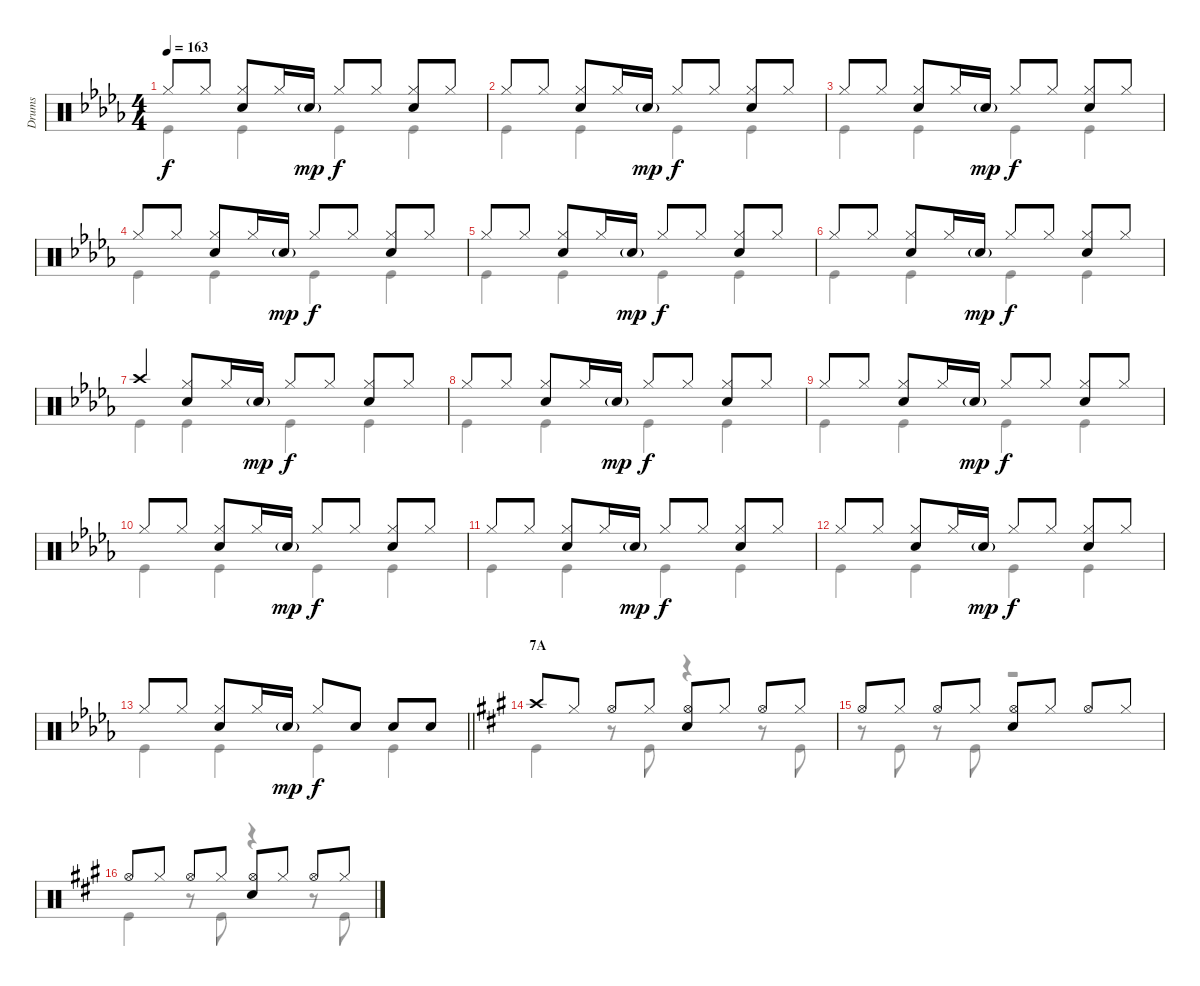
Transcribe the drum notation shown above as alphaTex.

\track ("Drums" "Drums") {instrument percussion}
\staff {score}
\articulation defaults
\voice
\ts (4 4)
\tempo 163
\clef neutral
\ks db "Hi-Hat (closed)".8{dy f} "Hi-Hat (closed)".8
("Hi-Hat (closed)" "Snare (hit) 2").8 "Hi-Hat (closed)".16 "Snare (hit) 2"{g}.16{dy mp} "Hi-Hat (closed)".8{dy f} "Hi-Hat (closed)".8 ("Hi-Hat (closed)" "Snare (hit) 2").8 "Hi-Hat (closed)".8 |
"Hi-Hat (closed)".8 "Hi-Hat (closed)".8 ("Hi-Hat (closed)" "Snare (hit) 2").8 "Hi-Hat (closed)".16 "Snare (hit) 2"{g}.16{dy mp} "Hi-Hat (closed)".8{dy f} "Hi-Hat (closed)".8 ("Hi-Hat (closed)" "Snare (hit) 2").8 "Hi-Hat (closed)".8 |
"Hi-Hat (closed)".8 "Hi-Hat (closed)".8 ("Hi-Hat (closed)" "Snare (hit) 2").8 "Hi-Hat (closed)".16 "Snare (hit) 2"{g}.16{dy mp} "Hi-Hat (closed)".8{dy f} "Hi-Hat (closed)".8 ("Hi-Hat (closed)" "Snare (hit) 2").8 "Hi-Hat (closed)".8 |
"Hi-Hat (closed)".8 "Hi-Hat (closed)".8 ("Hi-Hat (closed)" "Snare (hit) 2").8 "Hi-Hat (closed)".16 "Snare (hit) 2"{g}.16{dy mp} "Hi-Hat (closed)".8{dy f} "Hi-Hat (closed)".8 ("Hi-Hat (closed)" "Snare (hit) 2").8 "Hi-Hat (closed)".8 |
"Hi-Hat (closed)".8 "Hi-Hat (closed)".8 ("Hi-Hat (closed)" "Snare (hit) 2").8 "Hi-Hat (closed)".16 "Snare (hit) 2"{g}.16{dy mp} "Hi-Hat (closed)".8{dy f} "Hi-Hat (closed)".8 ("Hi-Hat (closed)" "Snare (hit) 2").8 "Hi-Hat (closed)".8 |
"Hi-Hat (closed)".8 "Hi-Hat (closed)".8 ("Hi-Hat (closed)" "Snare (hit) 2").8 "Hi-Hat (closed)".16 "Snare (hit) 2"{g}.16{dy mp} "Hi-Hat (closed)".8{dy f} "Hi-Hat (closed)".8 ("Hi-Hat (closed)" "Snare (hit) 2").8 "Hi-Hat (closed)".8 |
"Crash high (hit)".4 ("Hi-Hat (closed)" "Snare (hit) 2").8 "Hi-Hat (closed)".16 "Snare (hit) 2"{g}.16{dy mp} "Hi-Hat (closed)".8{dy f} "Hi-Hat (closed)".8 ("Hi-Hat (closed)" "Snare (hit) 2").8 "Hi-Hat (closed)".8 |
"Hi-Hat (closed)".8 "Hi-Hat (closed)".8 ("Hi-Hat (closed)" "Snare (hit) 2").8 "Hi-Hat (closed)".16 "Snare (hit) 2"{g}.16{dy mp} "Hi-Hat (closed)".8{dy f} "Hi-Hat (closed)".8 ("Hi-Hat (closed)" "Snare (hit) 2").8 "Hi-Hat (closed)".8 |
"Hi-Hat (closed)".8 "Hi-Hat (closed)".8 ("Hi-Hat (closed)" "Snare (hit) 2").8 "Hi-Hat (closed)".16 "Snare (hit) 2"{g}.16{dy mp} "Hi-Hat (closed)".8{dy f} "Hi-Hat (closed)".8 ("Hi-Hat (closed)" "Snare (hit) 2").8 "Hi-Hat (closed)".8 |
"Hi-Hat (closed)".8 "Hi-Hat (closed)".8 ("Hi-Hat (closed)" "Snare (hit) 2").8 "Hi-Hat (closed)".16 "Snare (hit) 2"{g}.16{dy mp} "Hi-Hat (closed)".8{dy f} "Hi-Hat (closed)".8 ("Hi-Hat (closed)" "Snare (hit) 2").8 "Hi-Hat (closed)".8 |
"Hi-Hat (closed)".8 "Hi-Hat (closed)".8 ("Hi-Hat (closed)" "Snare (hit) 2").8 "Hi-Hat (closed)".16 "Snare (hit) 2"{g}.16{dy mp} "Hi-Hat (closed)".8{dy f} "Hi-Hat (closed)".8 ("Hi-Hat (closed)" "Snare (hit) 2").8 "Hi-Hat (closed)".8 |
"Hi-Hat (closed)".8 "Hi-Hat (closed)".8 ("Hi-Hat (closed)" "Snare (hit) 2").8 "Hi-Hat (closed)".16 "Snare (hit) 2"{g}.16{dy mp} "Hi-Hat (closed)".8{dy f} "Hi-Hat (closed)".8 ("Hi-Hat (closed)" "Snare (hit) 2").8 "Hi-Hat (closed)".8 |
\barLineRight lightlight "Hi-Hat (closed)".8 "Hi-Hat (closed)".8
("Hi-Hat (closed)" "Snare (hit) 2").8 "Hi-Hat (closed)".16 "Snare (hit) 2"{g}.16{dy mp} "Hi-Hat (closed)".8{dy f} "Snare (hit) 2".8 "Snare (hit) 2".8 "Snare (hit) 2".8 |
\section ("" "7A")
\ks a "Crash high (hit)".8 "Hi-Hat (closed)".8 "Hi-Hat (open)".8 "Hi-Hat (closed)".8
("Hi-Hat (open)" "Snare (hit) 2").8 "Hi-Hat (closed)".8 "Hi-Hat (open)".8 "Hi-Hat (closed)".8 |
"Hi-Hat (open)".8 "Hi-Hat (closed)".8 "Hi-Hat (open)".8 "Hi-Hat (closed)".8 ("Hi-Hat (open)" "Snare (hit) 2").8 "Hi-Hat (closed)".8 "Hi-Hat (open)".8 "Hi-Hat (closed)".8 |
"Hi-Hat (open)".8 "Hi-Hat (closed)".8 "Hi-Hat (open)".8 "Hi-Hat (closed)".8 ("Hi-Hat (open)" "Snare (hit) 2").8 "Hi-Hat (closed)".8 "Hi-Hat (open)".8 "Hi-Hat (closed)".8
\voice
\clef neutral
\ottava regular
\simile none
\ks db "Kick (hit)".4{dy f} "Kick (hit)".4 "Kick (hit)".4 "Kick (hit)".4
|
"Kick (hit)".4 "Kick (hit)".4 "Kick (hit)".4 "Kick (hit)".4 |
"Kick (hit)".4 "Kick (hit)".4 "Kick (hit)".4 "Kick (hit)".4 |
"Kick (hit)".4 "Kick (hit)".4 "Kick (hit)".4 "Kick (hit)".4 |
"Kick (hit)".4 "Kick (hit)".4 "Kick (hit)".4 "Kick (hit)".4 |
"Kick (hit)".4 "Kick (hit)".4 "Kick (hit)".4 "Kick (hit)".4 |
"Kick (hit)".4 "Kick (hit)".4 "Kick (hit)".4 "Kick (hit)".4 |
"Kick (hit)".4 "Kick (hit)".4 "Kick (hit)".4 "Kick (hit)".4 |
"Kick (hit)".4 "Kick (hit)".4 "Kick (hit)".4 "Kick (hit)".4 |
"Kick (hit)".4 "Kick (hit)".4 "Kick (hit)".4 "Kick (hit)".4 |
"Kick (hit)".4 "Kick (hit)".4 "Kick (hit)".4 "Kick (hit)".4 |
"Kick (hit)".4 "Kick (hit)".4 "Kick (hit)".4 "Kick (hit)".4 |
\barLineRight lightlight "Kick (hit)".4 "Kick (hit)".4 "Kick (hit)".4 "Kick (hit)".4
|
\ks a "Kick (hit)".4
r.8 "Kick (hit)".8 r.4 r.8 "Kick (hit)".8 |
r.8 "Kick (hit)".8 r.8 "Kick (hit)".8 r.2 |
"Kick (hit)".4 r.8 "Kick (hit)".8 r.4 r.8 "Kick (hit)".8
